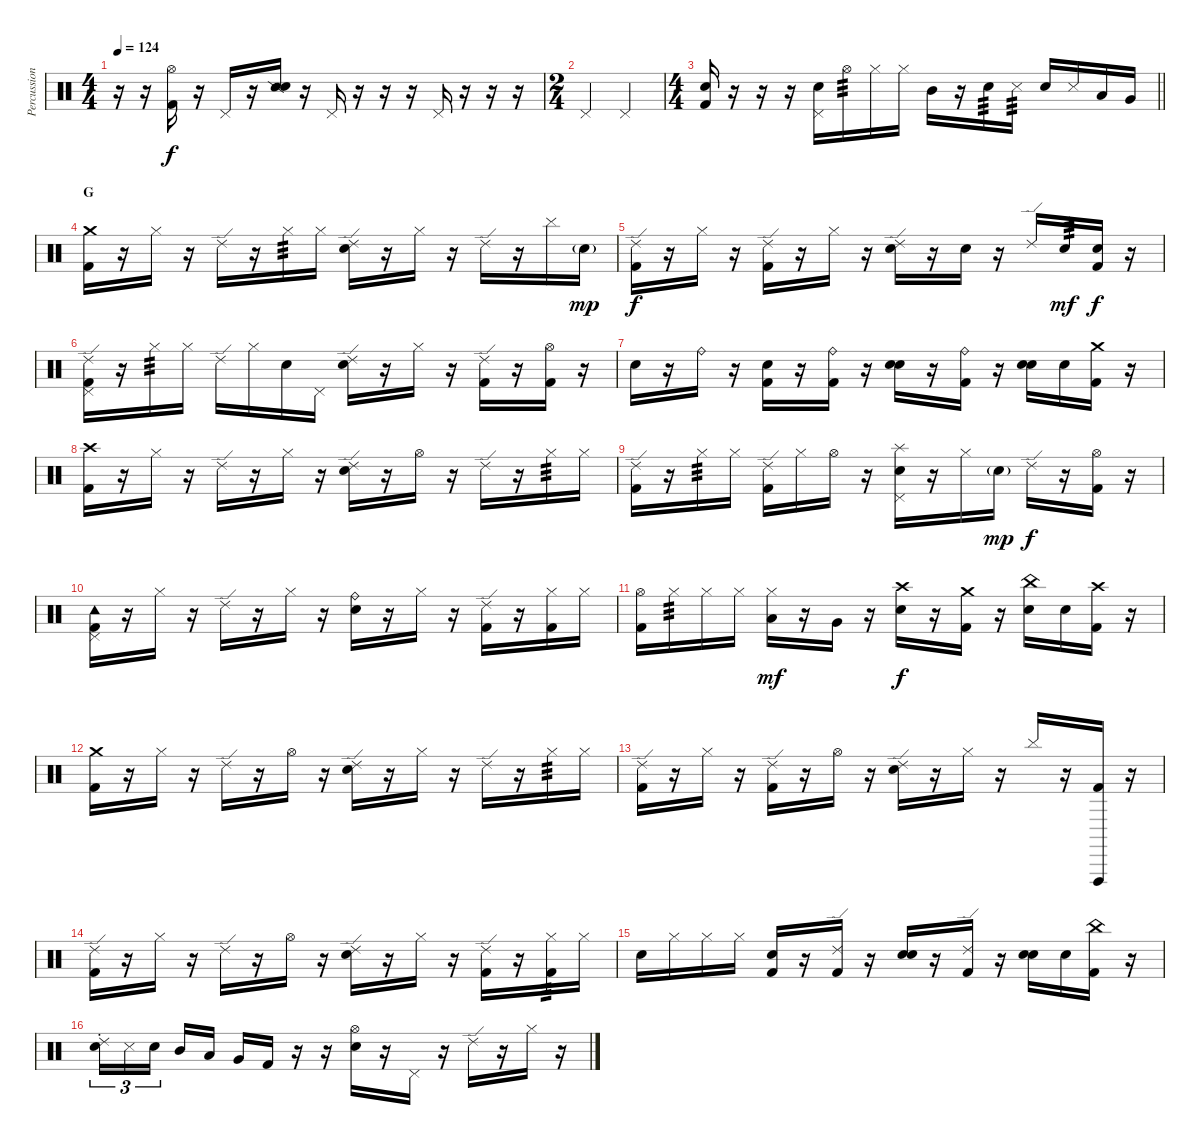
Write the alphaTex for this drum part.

\track ("Percussion" "Percussion") {instrument percussion}
\staff {score}
\articulation defaults
\ts (4 4)
\tempo 124
\clef neutral
\ks c
r.16{dy f} r.16 ("Hi-Hat (open)" "Kick (hit) 2").16 r.16 "Pedal Hi-Hat (hit)".16 r.16 ("Snare (side stick) 2" "Snare (hit) 2").16 r.16 "Pedal Hi-Hat (hit)".16 r.16 r.16 r.16 "Pedal Hi-Hat (hit)".16 r.16 r.16 r.16 |
\ts (2 4)
"Pedal Hi-Hat (hit)".4 "Pedal Hi-Hat (hit)".4 |
\ts (4 4)
\barLineRight lightlight
("Snare (hit)" "Kick (hit) 2").16 r.16 r.16 r.16 ("Pedal Hi-Hat (hit)" "Snare (hit) 2").16 "Hi-Hat (open)".16{tp 3} "Hi-Hat (closed)".16 "Hi-Hat (closed)".16 "Mid Tom (hit)".16 r.16 "Snare (hit) 2".16{tp 3} "Metronome (hit)".16{tp 3} "Snare (hit) 2".16 "Metronome (hit)".16 "Low Tom (hit)".16 "Very Low Tom (hit)".16 |
\section ("" "G")
("Crash medium (hit)" "Kick (hit) 2").16 r.16 "Hi-Hat (closed)".16 r.16 "Ride (edge) 2".16 r.16 "Hi-Hat (closed)".16{tp 3} "Hi-Hat (closed)".16 ("Ride (edge) 2" "Snare (hit) 2").16 r.16 "Hi-Hat (closed)".16 r.16 "Ride (edge) 2".16 r.16 "Cymbal (hit)".16 "Snare (hit) 2"{g}.16{dy mp} |
("Ride (edge) 2" "Kick (hit) 2").16{dy f} r.16 "Hi-Hat (closed)".16 r.16 ("Ride (edge) 2" "Kick (hit) 2").16 r.16 "Hi-Hat (closed)".16 r.16 ("Ride (edge) 2" "Snare (hit) 2").16 r.16 "Snare (hit)".16 r.16 "Ride (edge) 2".16 "Snare (hit) 2".16{tp 3 dy mf} ("Snare (hit)" "Kick (hit) 2").16{dy f} r.16 |
("Ride (edge) 2" "Pedal Hi-Hat (hit)" "Kick (hit) 2").16 r.16 "Hi-Hat (closed)".16{tp 3} "Hi-Hat (closed)".16 "Ride (edge) 2".16 "Hi-Hat (closed)".16 "Snare (hit)".16 "Pedal Hi-Hat (hit)".16 ("Ride (edge) 2" "Snare (hit) 2").16 r.16 "Hi-Hat (closed)".16 r.16 ("Ride (edge) 2" "Kick (hit) 2").16 r.16 ("Hi-Hat (open)" "Kick (hit) 2").16 r.16 |
"Snare (hit)".16 r.16 "Ride (bell)".16 r.16 ("Snare (hit)" "Kick (hit) 2").16 r.16 ("Ride (bell)" "Kick (hit) 2").16 r.16 ("Snare (hit)" "Snare (hit) 2").16 r.16 ("Ride (bell)" "Kick (hit) 2").16 r.16 ("Snare (hit)" "Snare (hit) 2").16 "Snare (hit) 2".16 ("Crash medium (hit)" "Kick (hit) 2").16 r.16 |
("Crash high (hit)" "Kick (hit) 2").16 r.16 "Hi-Hat (closed)".16 r.16 "Ride (edge) 2".16 r.16 "Hi-Hat (closed)".16 r.16 ("Ride (edge) 2" "Snare (hit) 2").16 r.16 "Hi-Hat (open)".16 r.16 "Ride (edge) 2".16 r.16 "Hi-Hat (closed)".16{tp 3} "Hi-Hat (closed)".16 |
("Ride (edge) 2" "Kick (hit) 2").16 r.16 "Hi-Hat (closed)".16{tp 3} "Hi-Hat (closed)".16 ("Ride (edge) 2" "Kick (hit) 2").16 "Hi-Hat (closed)".16 "Hi-Hat (open)".16 r.16 ("Splash (hit)" "Pedal Hi-Hat (hit)" "Snare (hit) 2").16 r.16 "Hi-Hat (closed)".16 "Snare (hit) 2"{g}.16{dy mp} "Ride (edge) 2".16{dy f} r.16 ("Hi-Hat (open)" "Kick (hit) 2").16 r.16 |
("Tambourine (hit)" "Pedal Hi-Hat (hit)" "Kick (hit) 2").16 r.16 "Hi-Hat (closed)".16 r.16 "Ride (edge) 2".16 r.16 "Hi-Hat (closed)".16 r.16 ("Ride (bell)" "Snare (hit) 2").16 r.16 "Hi-Hat (closed)".16 r.16 ("Ride (edge) 2" "Kick (hit) 2").16 r.16 ("Hi-Hat (closed)" "Kick (hit) 2").16 "Hi-Hat (closed)".16 |
("Hi-Hat (open)" "Kick (hit) 2").16 "Hi-Hat (closed)".16{tp 3} "Hi-Hat (closed)".16 "Hi-Hat (closed)".16 ("Hi-Hat (closed)" "Low Tom (hit)").16{dy mf} r.16 "Very Low Tom (hit)".16 r.16 ("Crash high (hit)" "Snare (hit) 2").16{dy f} r.16 ("Crash medium (hit)" "Kick (hit) 2").16 r.16 ("China (hit)" "Snare (hit) 2").16 "Snare (hit) 2".16 ("Crash high (hit)" "Kick (hit) 2").16 r.16 |
("Crash medium (hit)" "Kick (hit) 2").16 r.16 "Hi-Hat (closed)".16 r.16 "Ride (edge) 2".16 r.16 "Hi-Hat (open)".16 r.16 ("Ride (edge) 2" "Snare (hit) 2").16 r.16 "Hi-Hat (closed)".16 r.16 "Ride (edge) 2".16 r.16 "Hi-Hat (closed)".16{tp 3} "Hi-Hat (closed)".16 |
("Ride (edge) 2" "Kick (hit) 2").16 r.16 "Hi-Hat (closed)".16 r.16 ("Ride (edge) 2" "Kick (hit) 2").16 r.16 "Hi-Hat (open)".16 r.16 ("Ride (edge) 2" "Snare (hit) 2").16 r.16 "Hi-Hat (closed)".16 r.16 "Cymbal (hit)".16 r.16 ("Vibraslap (hit)" "Kick (hit) 2").16 r.16 |
("Ride (edge) 2" "Kick (hit) 2").16 r.16 "Hi-Hat (closed)".16 r.16 "Ride (edge) 2".16 r.16 "Hi-Hat (open)".16 r.16 ("Ride (edge) 2" "Snare (hit) 2").16 r.16 "Hi-Hat (closed)".16 r.16 ("Ride (edge) 2" "Kick (hit) 2").16 r.16 ("Hi-Hat (closed)" "Kick (hit) 2").16{tp 3} "Hi-Hat (closed)".16 |
"Snare (hit)".16 "Hi-Hat (closed)".16 "Hi-Hat (closed)".16 "Hi-Hat (closed)".16 ("Snare (hit)" "Kick (hit) 2").16 r.16 ("Ride (edge) 2" "Kick (hit) 2").16 r.16 ("Snare (hit)" "Snare (hit) 2").16 r.16 ("Ride (edge) 2" "Kick (hit) 2").16 r.16 ("Snare (hit)" "Snare (hit) 2").16 "Snare (hit) 2".16 ("China (hit)" "Kick (hit) 2").16 r.16 |
("Ride (choke) 2" "Snare (hit) 2").16{tu (3 2)} "Metronome (hit)".16{tu (3 2)} "Snare (hit) 2".16{tu (3 2) beam splitsecondary} "Mid Tom (hit)".16 "Low Tom (hit)".16 "Very Low Tom (hit)".16 "Kick (hit) 2".16 r.16 r.16 ("Hi-Hat (open)" "Snare (hit) 2").16 r.16 "Pedal Hi-Hat (hit)".16 r.16 "Ride (edge) 2".16 r.16 "Hi-Hat (closed)".16 r.16
